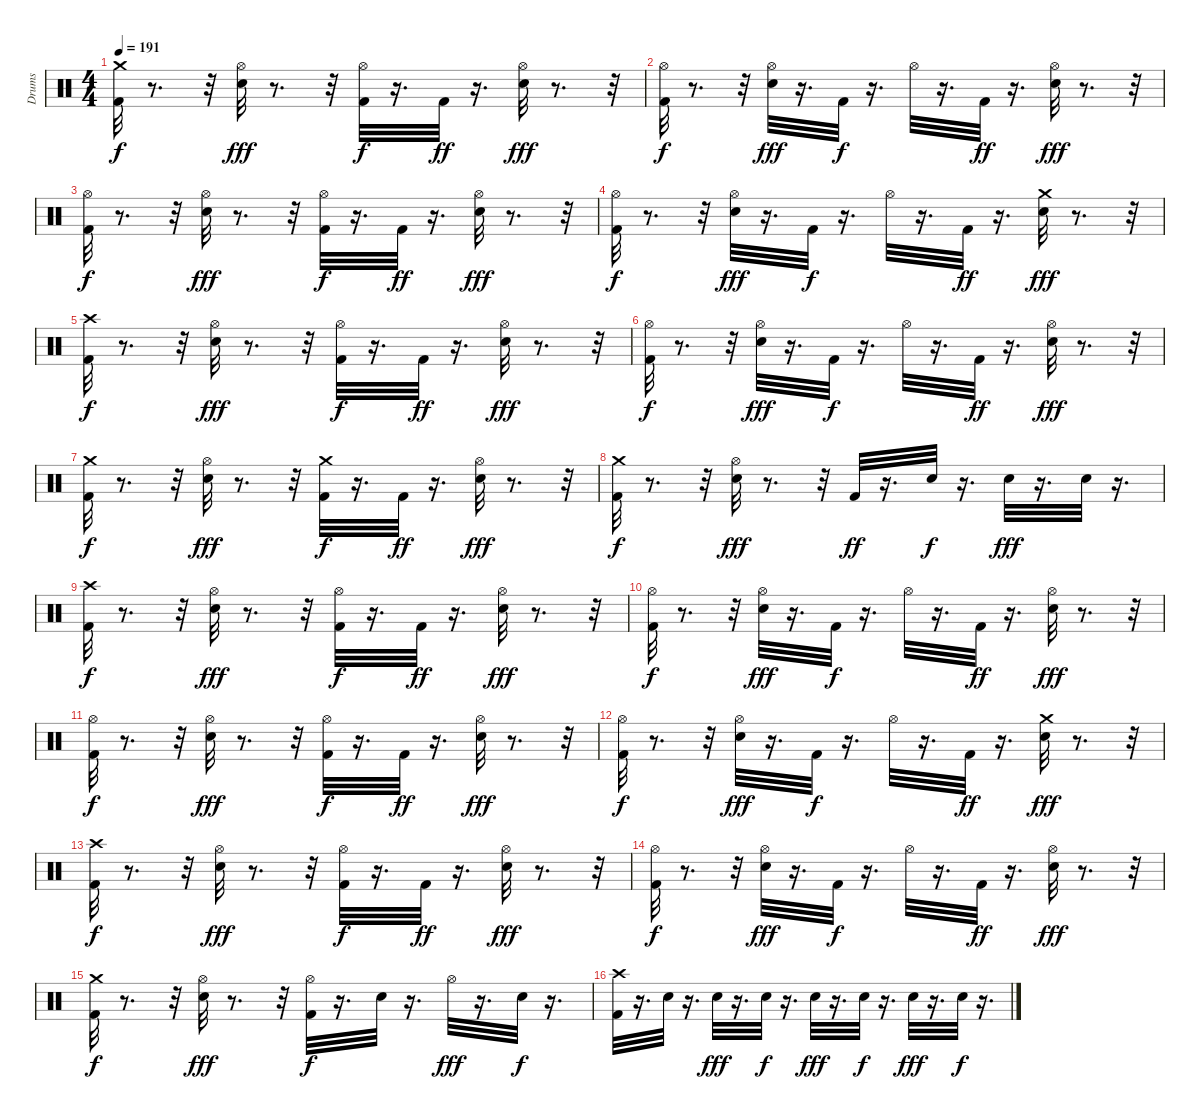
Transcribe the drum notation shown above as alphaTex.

\track ("Drums" "Drums") {instrument percussion}
\staff {score}
\articulation defaults
\ts (4 4)
\tempo 191
\clef neutral
\ks c
("Crash medium (hit)" "Kick (hit) 2").32{dy f} r.8{d} r.32 ("Snare (hit) 2" "Hi-Hat (open)").32{dy fff} r.8{d} r.32 ("Kick (hit) 2" "Hi-Hat (open)").32{dy f} r.16{d} "Kick (hit) 2".32{dy ff} r.16{d} ("Snare (hit) 2" "Hi-Hat (open)").32{dy fff} r.8{d} r.32 |
("Kick (hit) 2" "Hi-Hat (open)").32{dy f} r.8{d} r.32 ("Snare (hit) 2" "Hi-Hat (open)").32{dy fff} r.16{d} "Kick (hit) 2".32{dy f} r.16{d} "Hi-Hat (open)".32 r.16{d} "Kick (hit) 2".32{dy ff} r.16{d} ("Snare (hit) 2" "Hi-Hat (open)").32{dy fff} r.8{d} r.32 |
("Kick (hit) 2" "Hi-Hat (open)").32{dy f} r.8{d} r.32 ("Snare (hit) 2" "Hi-Hat (open)").32{dy fff} r.8{d} r.32 ("Kick (hit) 2" "Hi-Hat (open)").32{dy f} r.16{d} "Kick (hit) 2".32{dy ff} r.16{d} ("Snare (hit) 2" "Hi-Hat (open)").32{dy fff} r.8{d} r.32 |
("Kick (hit) 2" "Hi-Hat (open)").32{dy f} r.8{d} r.32 ("Snare (hit) 2" "Hi-Hat (open)").32{dy fff} r.16{d} "Kick (hit) 2".32{dy f} r.16{d} "Hi-Hat (open)".32 r.16{d} "Kick (hit) 2".32{dy ff} r.16{d} ("Snare (hit) 2" "Crash medium (hit)").32{dy fff} r.8{d} r.32 |
("Crash high (hit)" "Kick (hit) 2").32{dy f} r.8{d} r.32 ("Snare (hit) 2" "Hi-Hat (open)").32{dy fff} r.8{d} r.32 ("Kick (hit) 2" "Hi-Hat (open)").32{dy f} r.16{d} "Kick (hit) 2".32{dy ff} r.16{d} ("Snare (hit) 2" "Hi-Hat (open)").32{dy fff} r.8{d} r.32 |
("Kick (hit) 2" "Hi-Hat (open)").32{dy f} r.8{d} r.32 ("Snare (hit) 2" "Hi-Hat (open)").32{dy fff} r.16{d} "Kick (hit) 2".32{dy f} r.16{d} "Hi-Hat (open)".32 r.16{d} "Kick (hit) 2".32{dy ff} r.16{d} ("Snare (hit) 2" "Hi-Hat (open)").32{dy fff} r.8{d} r.32 |
("Kick (hit) 2" "Crash medium (hit)").32{dy f} r.8{d} r.32 ("Snare (hit) 2" "Hi-Hat (open)").32{dy fff} r.8{d} r.32 ("Kick (hit) 2" "Crash medium (hit)").32{dy f} r.16{d} "Kick (hit) 2".32{dy ff} r.16{d} ("Snare (hit) 2" "Hi-Hat (open)").32{dy fff} r.8{d} r.32 |
("Kick (hit) 2" "Crash medium (hit)").32{dy f} r.8{d} r.32 ("Snare (hit) 2" "Hi-Hat (open)").32{dy fff} r.8{d} r.32 "Kick (hit) 2".32{dy ff} r.16{d} "Snare (hit) 2".32{dy f} r.16{d} "Snare (hit) 2".32{dy fff} r.16{d} "Snare (hit) 2".32 r.16{d} |
("Crash high (hit)" "Kick (hit) 2").32{dy f} r.8{d} r.32 ("Snare (hit) 2" "Hi-Hat (open)").32{dy fff} r.8{d} r.32 ("Kick (hit) 2" "Hi-Hat (open)").32{dy f} r.16{d} "Kick (hit) 2".32{dy ff} r.16{d} ("Snare (hit) 2" "Hi-Hat (open)").32{dy fff} r.8{d} r.32 |
("Kick (hit) 2" "Hi-Hat (open)").32{dy f} r.8{d} r.32 ("Snare (hit) 2" "Hi-Hat (open)").32{dy fff} r.16{d} "Kick (hit) 2".32{dy f} r.16{d} "Hi-Hat (open)".32 r.16{d} "Kick (hit) 2".32{dy ff} r.16{d} ("Snare (hit) 2" "Hi-Hat (open)").32{dy fff} r.8{d} r.32 |
("Kick (hit) 2" "Hi-Hat (open)").32{dy f} r.8{d} r.32 ("Snare (hit) 2" "Hi-Hat (open)").32{dy fff} r.8{d} r.32 ("Kick (hit) 2" "Hi-Hat (open)").32{dy f} r.16{d} "Kick (hit) 2".32{dy ff} r.16{d} ("Snare (hit) 2" "Hi-Hat (open)").32{dy fff} r.8{d} r.32 |
("Kick (hit) 2" "Hi-Hat (open)").32{dy f} r.8{d} r.32 ("Snare (hit) 2" "Hi-Hat (open)").32{dy fff} r.16{d} "Kick (hit) 2".32{dy f} r.16{d} "Hi-Hat (open)".32 r.16{d} "Kick (hit) 2".32{dy ff} r.16{d} ("Snare (hit) 2" "Crash medium (hit)").32{dy fff} r.8{d} r.32 |
("Crash high (hit)" "Kick (hit) 2").32{dy f} r.8{d} r.32 ("Snare (hit) 2" "Hi-Hat (open)").32{dy fff} r.8{d} r.32 ("Kick (hit) 2" "Hi-Hat (open)").32{dy f} r.16{d} "Kick (hit) 2".32{dy ff} r.16{d} ("Snare (hit) 2" "Hi-Hat (open)").32{dy fff} r.8{d} r.32 |
("Kick (hit) 2" "Hi-Hat (open)").32{dy f} r.8{d} r.32 ("Snare (hit) 2" "Hi-Hat (open)").32{dy fff} r.16{d} "Kick (hit) 2".32{dy f} r.16{d} "Hi-Hat (open)".32 r.16{d} "Kick (hit) 2".32{dy ff} r.16{d} ("Snare (hit) 2" "Hi-Hat (open)").32{dy fff} r.8{d} r.32 |
("Kick (hit) 2" "Crash medium (hit)").32{dy f} r.8{d} r.32 ("Hi-Hat (open)" "Snare (hit) 2").32{dy fff} r.8{d} r.32 ("Kick (hit) 2" "Hi-Hat (open)").32{dy f} r.16{d} "Snare (hit) 2".32 r.16{d} "Hi-Hat (open)".32{dy fff} r.16{d} "Snare (hit) 2".32{dy f} r.16{d} |
("Crash high (hit)" "Kick (hit) 2").32 r.16{d} "Snare (hit) 2".32 r.16{d} "Snare (hit) 2".32{dy fff} r.16{d} "Snare (hit) 2".32{dy f} r.16{d} "Snare (hit) 2".32{dy fff} r.16{d} "Snare (hit) 2".32{dy f} r.16{d} "Snare (hit) 2".32{dy fff} r.16{d} "Snare (hit) 2".32{dy f} r.16{d}
